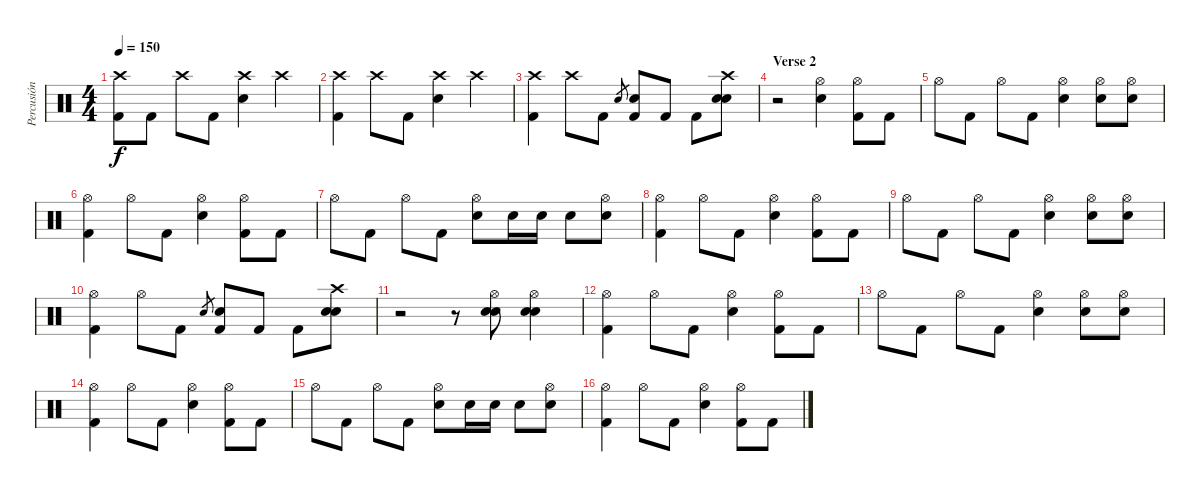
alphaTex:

\track ("Percusión" "Percusión") {instrument percussion}
\staff {score}
\articulation defaults
\ts (4 4)
\tempo 150
\clef neutral
\ks c
("Crash high (hit)" "Kick (hit) 2").8{dy f} "Kick (hit) 2".8 "Crash high (hit)".8 "Kick (hit) 2".8 ("Crash high (hit)" "Electric Snare (hit)").4 "Crash high (hit)".4 |
("Crash high (hit)" "Kick (hit) 2").4 "Crash high (hit)".8 "Kick (hit) 2".8 ("Crash high (hit)" "Electric Snare (hit)").4 "Crash high (hit)".4 |
("Crash high (hit)" "Kick (hit) 2").4 "Crash high (hit)".8 "Kick (hit) 2".8 "Electric Snare (hit)".8{gr} ("Electric Snare (hit)" "Kick (hit) 2").8 "Kick (hit) 2".8 "Kick (hit) 2".8 ("Crash high (hit)" "Electric Snare (hit)" "Electric Snare (hit)").8 |
\section ("" "Verse 2")
r.2 ("Hi-Hat (open)" "Electric Snare (hit)").4 ("Hi-Hat (open)" "Kick (hit) 2").8 "Kick (hit) 2".8 |
"Hi-Hat (open)".8 "Kick (hit) 2".8 "Hi-Hat (open)".8 "Kick (hit) 2".8 ("Hi-Hat (open)" "Electric Snare (hit)").4 ("Hi-Hat (open)" "Electric Snare (hit)").8 ("Hi-Hat (open)" "Electric Snare (hit)").8 |
("Hi-Hat (open)" "Kick (hit) 2").4 "Hi-Hat (open)".8 "Kick (hit) 2".8 ("Hi-Hat (open)" "Electric Snare (hit)").4 ("Hi-Hat (open)" "Kick (hit) 2").8 "Kick (hit) 2".8 |
"Hi-Hat (open)".8 "Kick (hit) 2".8 "Hi-Hat (open)".8 "Kick (hit) 2".8 ("Hi-Hat (open)" "Electric Snare (hit)").8 "Electric Snare (hit)".16 "Electric Snare (hit)".16 "Electric Snare (hit)".8 ("Hi-Hat (open)" "Electric Snare (hit)").8 |
("Hi-Hat (open)" "Kick (hit) 2").4 "Hi-Hat (open)".8 "Kick (hit) 2".8 ("Hi-Hat (open)" "Electric Snare (hit)").4 ("Hi-Hat (open)" "Kick (hit) 2").8 "Kick (hit) 2".8 |
"Hi-Hat (open)".8 "Kick (hit) 2".8 "Hi-Hat (open)".8 "Kick (hit) 2".8 ("Hi-Hat (open)" "Electric Snare (hit)").4 ("Hi-Hat (open)" "Electric Snare (hit)").8 ("Hi-Hat (open)" "Electric Snare (hit)").8 |
("Hi-Hat (open)" "Kick (hit) 2").4 "Hi-Hat (open)".8 "Kick (hit) 2".8 "Electric Snare (hit)".8{gr} ("Electric Snare (hit)" "Kick (hit) 2").8 "Kick (hit) 2".8 "Kick (hit) 2".8 ("Crash high (hit)" "Electric Snare (hit)" "Electric Snare (hit)").8 |
r.2 r.8 ("Hi-Hat (open)" "Electric Snare (hit)" "Electric Snare (hit)").8 ("Hi-Hat (open)" "Electric Snare (hit)" "Electric Snare (hit)").4 |
("Hi-Hat (open)" "Kick (hit) 2").4 "Hi-Hat (open)".8 "Kick (hit) 2".8 ("Hi-Hat (open)" "Electric Snare (hit)").4 ("Hi-Hat (open)" "Kick (hit) 2").8 "Kick (hit) 2".8 |
"Hi-Hat (open)".8 "Kick (hit) 2".8 "Hi-Hat (open)".8 "Kick (hit) 2".8 ("Hi-Hat (open)" "Electric Snare (hit)").4 ("Hi-Hat (open)" "Electric Snare (hit)").8 ("Hi-Hat (open)" "Electric Snare (hit)").8 |
("Hi-Hat (open)" "Kick (hit) 2").4 "Hi-Hat (open)".8 "Kick (hit) 2".8 ("Hi-Hat (open)" "Electric Snare (hit)").4 ("Hi-Hat (open)" "Kick (hit) 2").8 "Kick (hit) 2".8 |
"Hi-Hat (open)".8 "Kick (hit) 2".8 "Hi-Hat (open)".8 "Kick (hit) 2".8 ("Hi-Hat (open)" "Electric Snare (hit)").8 "Electric Snare (hit)".16 "Electric Snare (hit)".16 "Electric Snare (hit)".8 ("Hi-Hat (open)" "Electric Snare (hit)").8 |
("Hi-Hat (open)" "Kick (hit) 2").4 "Hi-Hat (open)".8 "Kick (hit) 2".8 ("Hi-Hat (open)" "Electric Snare (hit)").4 ("Hi-Hat (open)" "Kick (hit) 2").8 "Kick (hit) 2".8
